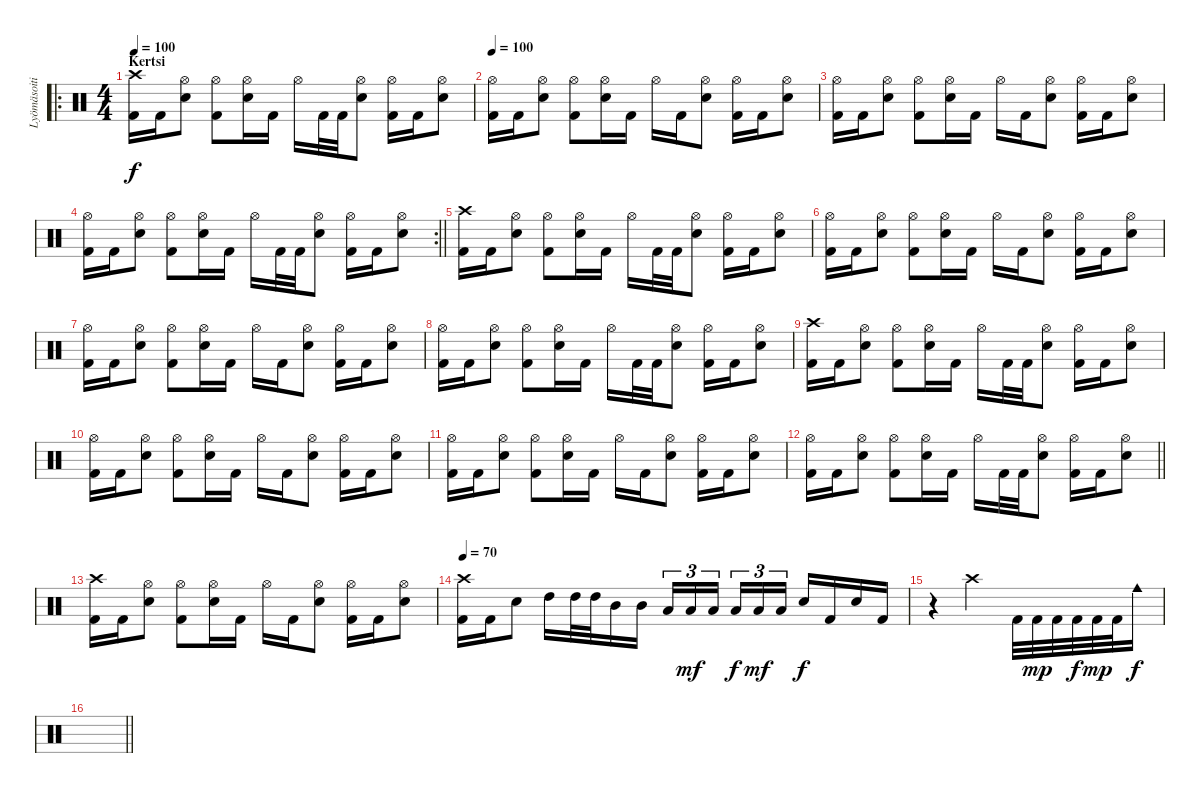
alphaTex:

\track ("Lyömäsoitin" "Lyömäsoiti") {instrument percussion}
\staff {score}
\articulation defaults
\ro
\ts (4 4)
\section ("" "Kertsi")
\tempo 100
\clef neutral
\ks c
("Crash high (hit)" "Kick (hit) 2").16{dy f} "Kick (hit) 2".16 ("Hi-Hat (open)" "Snare (hit) 2").8 ("Hi-Hat (open)" "Kick (hit) 2").8 ("Hi-Hat (open)" "Snare (hit) 2").16 "Kick (hit) 2".16 "Hi-Hat (open)".16 "Kick (hit) 2".32 "Kick (hit) 2".32 ("Hi-Hat (open)" "Snare (hit) 2").8 ("Hi-Hat (open)" "Kick (hit) 2").16 "Kick (hit) 2".16 ("Hi-Hat (open)" "Snare (hit) 2").8 |
\tempo 100
("Hi-Hat (open)" "Kick (hit) 2").16 "Kick (hit) 2".16 ("Hi-Hat (open)" "Snare (hit) 2").8 ("Hi-Hat (open)" "Kick (hit) 2").8 ("Hi-Hat (open)" "Snare (hit) 2").16 "Kick (hit) 2".16 "Hi-Hat (open)".16 "Kick (hit) 2".16 ("Hi-Hat (open)" "Snare (hit) 2").8 ("Hi-Hat (open)" "Kick (hit) 2").16 "Kick (hit) 2".16 ("Hi-Hat (open)" "Snare (hit) 2").8 |
("Hi-Hat (open)" "Kick (hit) 2").16 "Kick (hit) 2".16 ("Hi-Hat (open)" "Snare (hit) 2").8 ("Hi-Hat (open)" "Kick (hit) 2").8 ("Hi-Hat (open)" "Snare (hit) 2").16 "Kick (hit) 2".16 "Hi-Hat (open)".16 "Kick (hit) 2".16 ("Hi-Hat (open)" "Snare (hit) 2").8 ("Hi-Hat (open)" "Kick (hit) 2").16 "Kick (hit) 2".16 ("Hi-Hat (open)" "Snare (hit) 2").8 |
\rc 2
\barLineRight lightlight
("Hi-Hat (open)" "Kick (hit) 2").16 "Kick (hit) 2".16 ("Hi-Hat (open)" "Snare (hit) 2").8 ("Hi-Hat (open)" "Kick (hit) 2").8 ("Hi-Hat (open)" "Snare (hit) 2").16 "Kick (hit) 2".16 "Hi-Hat (open)".16 "Kick (hit) 2".32 "Kick (hit) 2".32 ("Hi-Hat (open)" "Snare (hit) 2").8 ("Hi-Hat (open)" "Kick (hit) 2").16 "Kick (hit) 2".16 ("Hi-Hat (open)" "Snare (hit) 2").8 |
("Crash high (hit)" "Kick (hit) 2").16 "Kick (hit) 2".16 ("Hi-Hat (open)" "Snare (hit) 2").8 ("Hi-Hat (open)" "Kick (hit) 2").8 ("Hi-Hat (open)" "Snare (hit) 2").16 "Kick (hit) 2".16 "Hi-Hat (open)".16 "Kick (hit) 2".32 "Kick (hit) 2".32 ("Hi-Hat (open)" "Snare (hit) 2").8 ("Hi-Hat (open)" "Kick (hit) 2").16 "Kick (hit) 2".16 ("Hi-Hat (open)" "Snare (hit) 2").8 |
("Hi-Hat (open)" "Kick (hit) 2").16 "Kick (hit) 2".16 ("Hi-Hat (open)" "Snare (hit) 2").8 ("Hi-Hat (open)" "Kick (hit) 2").8 ("Hi-Hat (open)" "Snare (hit) 2").16 "Kick (hit) 2".16 "Hi-Hat (open)".16 "Kick (hit) 2".16 ("Hi-Hat (open)" "Snare (hit) 2").8 ("Hi-Hat (open)" "Kick (hit) 2").16 "Kick (hit) 2".16 ("Hi-Hat (open)" "Snare (hit) 2").8 |
("Hi-Hat (open)" "Kick (hit) 2").16 "Kick (hit) 2".16 ("Hi-Hat (open)" "Snare (hit) 2").8 ("Hi-Hat (open)" "Kick (hit) 2").8 ("Hi-Hat (open)" "Snare (hit) 2").16 "Kick (hit) 2".16 "Hi-Hat (open)".16 "Kick (hit) 2".16 ("Hi-Hat (open)" "Snare (hit) 2").8 ("Hi-Hat (open)" "Kick (hit) 2").16 "Kick (hit) 2".16 ("Hi-Hat (open)" "Snare (hit) 2").8 |
("Hi-Hat (open)" "Kick (hit) 2").16 "Kick (hit) 2".16 ("Hi-Hat (open)" "Snare (hit) 2").8 ("Hi-Hat (open)" "Kick (hit) 2").8 ("Hi-Hat (open)" "Snare (hit) 2").16 "Kick (hit) 2".16 "Hi-Hat (open)".16 "Kick (hit) 2".32 "Kick (hit) 2".32 ("Hi-Hat (open)" "Snare (hit) 2").8 ("Hi-Hat (open)" "Kick (hit) 2").16 "Kick (hit) 2".16 ("Hi-Hat (open)" "Snare (hit) 2").8 |
("Crash high (hit)" "Kick (hit) 2").16 "Kick (hit) 2".16 ("Hi-Hat (open)" "Snare (hit) 2").8 ("Hi-Hat (open)" "Kick (hit) 2").8 ("Hi-Hat (open)" "Snare (hit) 2").16 "Kick (hit) 2".16 "Hi-Hat (open)".16 "Kick (hit) 2".32 "Kick (hit) 2".32 ("Hi-Hat (open)" "Snare (hit) 2").8 ("Hi-Hat (open)" "Kick (hit) 2").16 "Kick (hit) 2".16 ("Hi-Hat (open)" "Snare (hit) 2").8 |
("Hi-Hat (open)" "Kick (hit) 2").16 "Kick (hit) 2".16 ("Hi-Hat (open)" "Snare (hit) 2").8 ("Hi-Hat (open)" "Kick (hit) 2").8 ("Hi-Hat (open)" "Snare (hit) 2").16 "Kick (hit) 2".16 "Hi-Hat (open)".16 "Kick (hit) 2".16 ("Hi-Hat (open)" "Snare (hit) 2").8 ("Hi-Hat (open)" "Kick (hit) 2").16 "Kick (hit) 2".16 ("Hi-Hat (open)" "Snare (hit) 2").8 |
("Hi-Hat (open)" "Kick (hit) 2").16 "Kick (hit) 2".16 ("Hi-Hat (open)" "Snare (hit) 2").8 ("Hi-Hat (open)" "Kick (hit) 2").8 ("Hi-Hat (open)" "Snare (hit) 2").16 "Kick (hit) 2".16 "Hi-Hat (open)".16 "Kick (hit) 2".16 ("Hi-Hat (open)" "Snare (hit) 2").8 ("Hi-Hat (open)" "Kick (hit) 2").16 "Kick (hit) 2".16 ("Hi-Hat (open)" "Snare (hit) 2").8 |
\barLineRight lightlight
("Hi-Hat (open)" "Kick (hit) 2").16 "Kick (hit) 2".16 ("Hi-Hat (open)" "Snare (hit) 2").8 ("Hi-Hat (open)" "Kick (hit) 2").8 ("Hi-Hat (open)" "Snare (hit) 2").16 "Kick (hit) 2".16 "Hi-Hat (open)".16 "Kick (hit) 2".32 "Kick (hit) 2".32 ("Hi-Hat (open)" "Snare (hit) 2").8 ("Hi-Hat (open)" "Kick (hit) 2").16 "Kick (hit) 2".16 ("Hi-Hat (open)" "Snare (hit) 2").8 |
("Crash high (hit)" "Kick (hit) 2").16 "Kick (hit) 2".16 ("Hi-Hat (open)" "Snare (hit) 2").8 ("Hi-Hat (open)" "Kick (hit) 2").8 ("Hi-Hat (open)" "Snare (hit) 2").16 "Kick (hit) 2".16 "Hi-Hat (open)".16 "Kick (hit) 2".16 ("Hi-Hat (open)" "Snare (hit) 2").8 ("Hi-Hat (open)" "Kick (hit) 2").16 "Kick (hit) 2".16 ("Hi-Hat (open)" "Snare (hit) 2").8 |
\tempo 70
("Crash high (hit)" "Kick (hit) 2").16 "Kick (hit) 2".16 "Snare (hit) 2".8 "High Tom (hit)".16 "High Tom (hit)".32 "High Tom (hit)".32 "Mid Tom (hit)".16 "Mid Tom (hit)".16 "Low Tom (hit)".16{tu (3 2)} "Low Tom (hit)".16{tu (3 2) dy mf} "Low Tom (hit)".16{tu (3 2) beam splitsecondary} "Low Tom (hit)".16{tu (3 2) dy f} "Low Tom (hit)".16{tu (3 2) dy mf} "Low Tom (hit)".16{tu (3 2)} "Snare (hit) 2".16{dy f} "Kick (hit) 2".16 "Snare (hit) 2".16 "Kick (hit) 2".16 |
r.4 "Crash high (hit)".2 "Kick (hit) 2".32 "Kick (hit) 2".32{dy mp} "Kick (hit) 2".32 "Kick (hit) 2".32{dy f} "Kick (hit) 2".32{dy mp} "Kick (hit) 2".32 "Cowbell medium (hit)".16{dy f} |
\barLineRight lightlight
